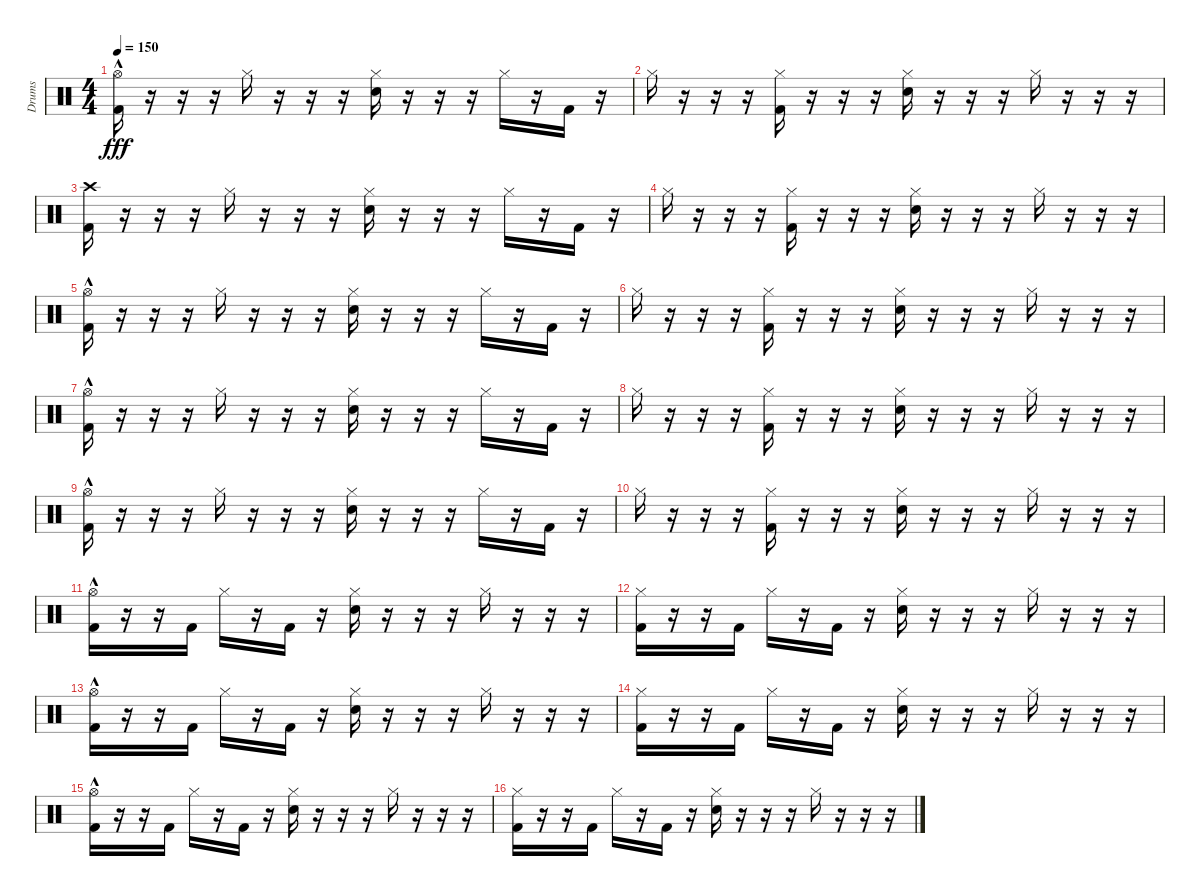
\track ("Drums" "Drums") {instrument percussion}
\staff {score}
\articulation defaults
\ts (4 4)
\tempo 150
\clef neutral
\ks c
("Hi-Hat (open)"{hac} "Kick (hit) 2").16{dy fff} r.16 r.16 r.16 "Hi-Hat (closed)".16 r.16 r.16 r.16 ("Hi-Hat (closed)" "Electric Snare (hit)").16 r.16 r.16 r.16 "Hi-Hat (closed)".16 r.16 "Kick (hit) 2".16 r.16 |
"Hi-Hat (closed)".16 r.16 r.16 r.16 ("Hi-Hat (closed)" "Kick (hit) 2").16 r.16 r.16 r.16 ("Hi-Hat (closed)" "Electric Snare (hit)").16 r.16 r.16 r.16 "Hi-Hat (closed)".16 r.16 r.16 r.16 |
("Crash high (hit)" "Kick (hit) 2").16 r.16 r.16 r.16 "Hi-Hat (closed)".16 r.16 r.16 r.16 ("Hi-Hat (closed)" "Electric Snare (hit)").16 r.16 r.16 r.16 "Hi-Hat (closed)".16 r.16 "Kick (hit) 2".16 r.16 |
"Hi-Hat (closed)".16 r.16 r.16 r.16 ("Hi-Hat (closed)" "Kick (hit) 2").16 r.16 r.16 r.16 ("Hi-Hat (closed)" "Electric Snare (hit)").16 r.16 r.16 r.16 "Hi-Hat (closed)".16 r.16 r.16 r.16 |
("Hi-Hat (open)"{hac} "Kick (hit) 2").16 r.16 r.16 r.16 "Hi-Hat (closed)".16 r.16 r.16 r.16 ("Hi-Hat (closed)" "Electric Snare (hit)").16 r.16 r.16 r.16 "Hi-Hat (closed)".16 r.16 "Kick (hit) 2".16 r.16 |
"Hi-Hat (closed)".16 r.16 r.16 r.16 ("Hi-Hat (closed)" "Kick (hit) 2").16 r.16 r.16 r.16 ("Hi-Hat (closed)" "Electric Snare (hit)").16 r.16 r.16 r.16 "Hi-Hat (closed)".16 r.16 r.16 r.16 |
("Hi-Hat (open)"{hac} "Kick (hit) 2").16 r.16 r.16 r.16 "Hi-Hat (closed)".16 r.16 r.16 r.16 ("Hi-Hat (closed)" "Electric Snare (hit)").16 r.16 r.16 r.16 "Hi-Hat (closed)".16 r.16 "Kick (hit) 2".16 r.16 |
"Hi-Hat (closed)".16 r.16 r.16 r.16 ("Hi-Hat (closed)" "Kick (hit) 2").16 r.16 r.16 r.16 ("Hi-Hat (closed)" "Electric Snare (hit)").16 r.16 r.16 r.16 "Hi-Hat (closed)".16 r.16 r.16 r.16 |
("Hi-Hat (open)"{hac} "Kick (hit) 2").16 r.16 r.16 r.16 "Hi-Hat (closed)".16 r.16 r.16 r.16 ("Hi-Hat (closed)" "Electric Snare (hit)").16 r.16 r.16 r.16 "Hi-Hat (closed)".16 r.16 "Kick (hit) 2".16 r.16 |
"Hi-Hat (closed)".16 r.16 r.16 r.16 ("Hi-Hat (closed)" "Kick (hit) 2").16 r.16 r.16 r.16 ("Hi-Hat (closed)" "Electric Snare (hit)").16 r.16 r.16 r.16 "Hi-Hat (closed)".16 r.16 r.16 r.16 |
("Hi-Hat (open)"{hac} "Kick (hit) 2").16 r.16 r.16 "Kick (hit) 2".16 "Hi-Hat (closed)".16 r.16 "Kick (hit) 2".16 r.16 ("Hi-Hat (closed)" "Electric Snare (hit)").16 r.16 r.16 r.16 "Hi-Hat (closed)".16 r.16 r.16 r.16 |
("Hi-Hat (closed)" "Kick (hit) 2").16 r.16 r.16 "Kick (hit) 2".16 "Hi-Hat (closed)".16 r.16 "Kick (hit) 2".16 r.16 ("Hi-Hat (closed)" "Electric Snare (hit)").16 r.16 r.16 r.16 "Hi-Hat (closed)".16 r.16 r.16 r.16 |
("Hi-Hat (open)"{hac} "Kick (hit) 2").16 r.16 r.16 "Kick (hit) 2".16 "Hi-Hat (closed)".16 r.16 "Kick (hit) 2".16 r.16 ("Hi-Hat (closed)" "Electric Snare (hit)").16 r.16 r.16 r.16 "Hi-Hat (closed)".16 r.16 r.16 r.16 |
("Hi-Hat (closed)" "Kick (hit) 2").16 r.16 r.16 "Kick (hit) 2".16 "Hi-Hat (closed)".16 r.16 "Kick (hit) 2".16 r.16 ("Hi-Hat (closed)" "Electric Snare (hit)").16 r.16 r.16 r.16 "Hi-Hat (closed)".16 r.16 r.16 r.16 |
("Hi-Hat (open)"{hac} "Kick (hit) 2").16 r.16 r.16 "Kick (hit) 2".16 "Hi-Hat (closed)".16 r.16 "Kick (hit) 2".16 r.16 ("Hi-Hat (closed)" "Electric Snare (hit)").16 r.16 r.16 r.16 "Hi-Hat (closed)".16 r.16 r.16 r.16 |
("Hi-Hat (closed)" "Kick (hit) 2").16 r.16 r.16 "Kick (hit) 2".16 "Hi-Hat (closed)".16 r.16 "Kick (hit) 2".16 r.16 ("Hi-Hat (closed)" "Electric Snare (hit)").16 r.16 r.16 r.16 "Hi-Hat (closed)".16 r.16 r.16 r.16
